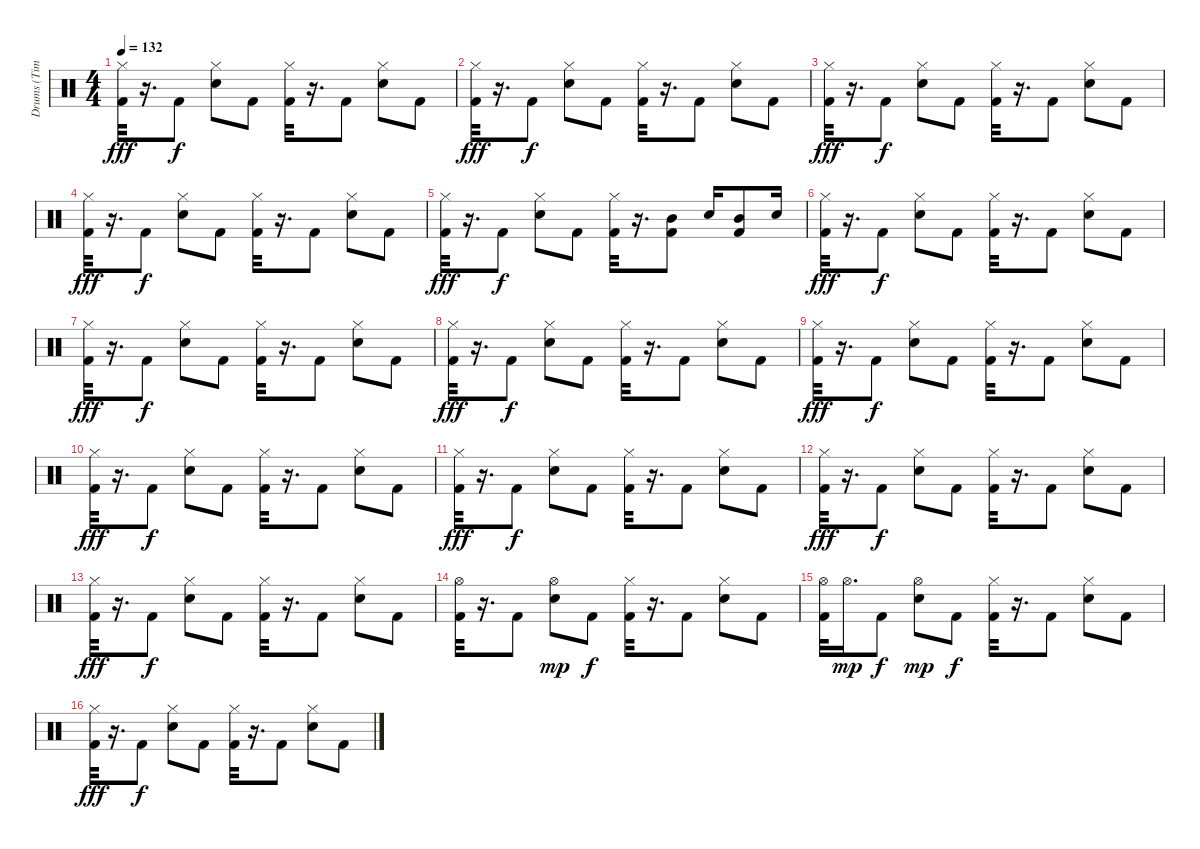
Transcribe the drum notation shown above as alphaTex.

\track ("Drums (Tim Alexander)" "Drums (Tim") {instrument percussion}
\staff {score}
\articulation defaults
\ts (4 4)
\tempo 132
\clef neutral
\ks c
("Hi-Hat (closed)" "Kick (hit) 2").32{dy fff} r.16{d} "Kick (hit) 2".8{dy f} ("Hi-Hat (closed)" "Snare (hit) 2").8 "Kick (hit) 2".8 ("Hi-Hat (closed)" "Kick (hit) 2").32 r.16{d} "Kick (hit) 2".8 ("Hi-Hat (closed)" "Snare (hit) 2").8 "Kick (hit) 2".8 |
("Hi-Hat (closed)" "Kick (hit) 2").32{dy fff} r.16{d} "Kick (hit) 2".8{dy f} ("Hi-Hat (closed)" "Snare (hit) 2").8 "Kick (hit) 2".8 ("Hi-Hat (closed)" "Kick (hit) 2").32 r.16{d} "Kick (hit) 2".8 ("Hi-Hat (closed)" "Snare (hit) 2").8 "Kick (hit) 2".8 |
("Hi-Hat (closed)" "Kick (hit) 2").32{dy fff} r.16{d} "Kick (hit) 2".8{dy f} ("Hi-Hat (closed)" "Snare (hit) 2").8 "Kick (hit) 2".8 ("Hi-Hat (closed)" "Kick (hit) 2").32 r.16{d} "Kick (hit) 2".8 ("Hi-Hat (closed)" "Snare (hit) 2").8 "Kick (hit) 2".8 |
("Hi-Hat (closed)" "Kick (hit) 2").32{dy fff} r.16{d} "Kick (hit) 2".8{dy f} ("Hi-Hat (closed)" "Snare (hit) 2").8 "Kick (hit) 2".8 ("Hi-Hat (closed)" "Kick (hit) 2").32 r.16{d} "Kick (hit) 2".8 ("Hi-Hat (closed)" "Snare (hit) 2").8 "Kick (hit) 2".8 |
("Hi-Hat (closed)" "Kick (hit) 2").32{dy fff} r.16{d} "Kick (hit) 2".8{dy f} ("Hi-Hat (closed)" "Snare (hit) 2").8 "Kick (hit) 2".8 ("Hi-Hat (closed)" "Kick (hit) 2").32 r.16{d} ("Mid Tom (hit)" "Kick (hit) 2").8 "Electric Snare (hit)".16 ("Mid Tom (hit)" "Kick (hit) 2").8 "Electric Snare (hit)".16 |
("Hi-Hat (closed)" "Kick (hit) 2").32{dy fff} r.16{d} "Kick (hit) 2".8{dy f} ("Hi-Hat (closed)" "Snare (hit) 2").8 "Kick (hit) 2".8 ("Hi-Hat (closed)" "Kick (hit) 2").32 r.16{d} "Kick (hit) 2".8 ("Hi-Hat (closed)" "Snare (hit) 2").8 "Kick (hit) 2".8 |
("Hi-Hat (closed)" "Kick (hit) 2").32{dy fff} r.16{d} "Kick (hit) 2".8{dy f} ("Hi-Hat (closed)" "Snare (hit) 2").8 "Kick (hit) 2".8 ("Hi-Hat (closed)" "Kick (hit) 2").32 r.16{d} "Kick (hit) 2".8 ("Hi-Hat (closed)" "Snare (hit) 2").8 "Kick (hit) 2".8 |
("Hi-Hat (closed)" "Kick (hit) 2").32{dy fff} r.16{d} "Kick (hit) 2".8{dy f} ("Hi-Hat (closed)" "Snare (hit) 2").8 "Kick (hit) 2".8 ("Hi-Hat (closed)" "Kick (hit) 2").32 r.16{d} "Kick (hit) 2".8 ("Hi-Hat (closed)" "Snare (hit) 2").8 "Kick (hit) 2".8 |
("Hi-Hat (closed)" "Kick (hit) 2").32{dy fff} r.16{d} "Kick (hit) 2".8{dy f} ("Hi-Hat (closed)" "Snare (hit) 2").8 "Kick (hit) 2".8 ("Hi-Hat (closed)" "Kick (hit) 2").32 r.16{d} "Kick (hit) 2".8 ("Hi-Hat (closed)" "Snare (hit) 2").8 "Kick (hit) 2".8 |
("Hi-Hat (closed)" "Kick (hit) 2").32{dy fff} r.16{d} "Kick (hit) 2".8{dy f} ("Hi-Hat (closed)" "Snare (hit) 2").8 "Kick (hit) 2".8 ("Hi-Hat (closed)" "Kick (hit) 2").32 r.16{d} "Kick (hit) 2".8 ("Hi-Hat (closed)" "Snare (hit) 2").8 "Kick (hit) 2".8 |
("Hi-Hat (closed)" "Kick (hit) 2").32{dy fff} r.16{d} "Kick (hit) 2".8{dy f} ("Hi-Hat (closed)" "Snare (hit) 2").8 "Kick (hit) 2".8 ("Hi-Hat (closed)" "Kick (hit) 2").32 r.16{d} "Kick (hit) 2".8 ("Hi-Hat (closed)" "Snare (hit) 2").8 "Kick (hit) 2".8 |
("Hi-Hat (closed)" "Kick (hit) 2").32{dy fff} r.16{d} "Kick (hit) 2".8{dy f} ("Hi-Hat (closed)" "Snare (hit) 2").8 "Kick (hit) 2".8 ("Hi-Hat (closed)" "Kick (hit) 2").32 r.16{d} "Kick (hit) 2".8 ("Hi-Hat (closed)" "Snare (hit) 2").8 "Kick (hit) 2".8 |
("Hi-Hat (closed)" "Kick (hit) 2").32{dy fff} r.16{d} "Kick (hit) 2".8{dy f} ("Hi-Hat (closed)" "Snare (hit) 2").8 "Kick (hit) 2".8 ("Hi-Hat (closed)" "Kick (hit) 2").32 r.16{d} "Kick (hit) 2".8 ("Hi-Hat (closed)" "Snare (hit) 2").8 "Kick (hit) 2".8 |
("Hi-Hat (open)" "Kick (hit) 2").32 r.16{d} "Kick (hit) 2".8 ("Hi-Hat (open)" "Snare (hit) 2").8{dy mp} "Kick (hit) 2".8{dy f} ("Hi-Hat (closed)" "Kick (hit) 2").32 r.16{d} "Kick (hit) 2".8 ("Hi-Hat (closed)" "Snare (hit) 2").8 "Kick (hit) 2".8 |
("Hi-Hat (open)" "Kick (hit) 2").32 "Hi-Hat (open)".16{d dy mp} "Kick (hit) 2".8{dy f} ("Hi-Hat (open)" "Snare (hit) 2").8{dy mp} "Kick (hit) 2".8{dy f} ("Hi-Hat (closed)" "Kick (hit) 2").32 r.16{d} "Kick (hit) 2".8 ("Hi-Hat (closed)" "Snare (hit) 2").8 "Kick (hit) 2".8 |
("Hi-Hat (closed)" "Kick (hit) 2").32{dy fff} r.16{d} "Kick (hit) 2".8{dy f} ("Hi-Hat (closed)" "Snare (hit) 2").8 "Kick (hit) 2".8 ("Hi-Hat (closed)" "Kick (hit) 2").32 r.16{d} "Kick (hit) 2".8 ("Hi-Hat (closed)" "Snare (hit) 2").8 "Kick (hit) 2".8
